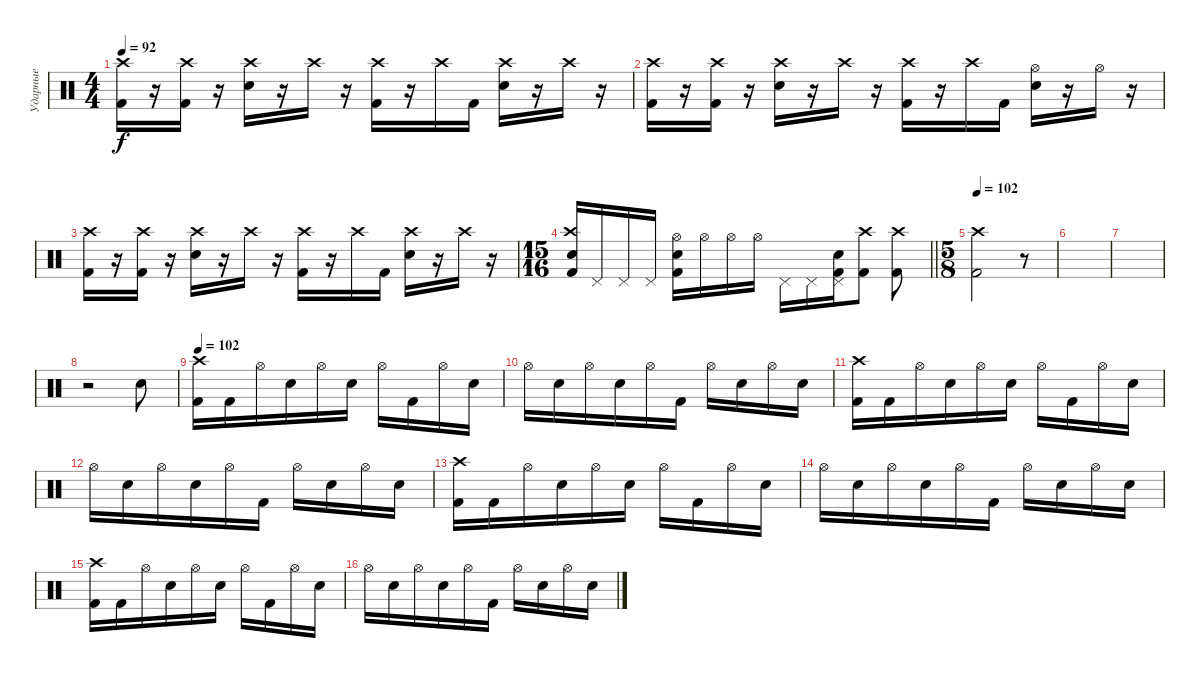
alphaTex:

\track ("Ударные" "Ударные") {instrument percussion}
\staff {score}
\articulation defaults
\ts (4 4)
\tempo 92
\clef neutral
\ks c
("Kick (hit) 2" "Crash high (hit)").16{dy f} r.16 ("Kick (hit) 2" "Crash high (hit)").16 r.16 ("Crash high (hit)" "Electric Snare (hit)").16 r.16 "Crash high (hit)".16 r.16 ("Kick (hit) 2" "Crash high (hit)").16 r.16 "Crash high (hit)".16 "Kick (hit) 2".16 ("Crash high (hit)" "Electric Snare (hit)").16 r.16 "Crash high (hit)".16 r.16 |
("Kick (hit) 2" "Crash high (hit)").16 r.16 ("Kick (hit) 2" "Crash high (hit)").16 r.16 ("Crash high (hit)" "Electric Snare (hit)").16 r.16 "Crash high (hit)".16 r.16 ("Kick (hit) 2" "Crash high (hit)").16 r.16 "Crash high (hit)".16 "Kick (hit) 2".16 ("Hi-Hat (open)" "Electric Snare (hit)").16 r.16 "Hi-Hat (open)".16 r.16 |
("Kick (hit) 2" "Crash high (hit)").16 r.16 ("Kick (hit) 2" "Crash high (hit)").16 r.16 ("Crash high (hit)" "Electric Snare (hit)").16 r.16 "Crash high (hit)".16 r.16 ("Kick (hit) 2" "Crash high (hit)").16 r.16 "Crash high (hit)".16 "Kick (hit) 2".16 ("Crash high (hit)" "Electric Snare (hit)").16 r.16 "Crash high (hit)".16 r.16 |
\ts (15 16)
\barLineRight lightlight
("Crash high (hit)" "Kick (hit) 2" "Electric Snare (hit)").16 "Pedal Hi-Hat (hit)".16 "Pedal Hi-Hat (hit)".16 "Pedal Hi-Hat (hit)".16 ("Hi-Hat (open)" "Kick (hit) 2" "Electric Snare (hit)").16 "Hi-Hat (open)".16 "Hi-Hat (open)".16 "Hi-Hat (open)".16 "Pedal Hi-Hat (hit)".16 "Pedal Hi-Hat (hit)".16 ("Pedal Hi-Hat (hit)" "Kick (hit) 2" "Electric Snare (hit)").16 ("Crash high (hit)" "Kick (hit) 2").8 ("Crash high (hit)" "Kick (hit) 2").8 |
\ts (5 8)
\section ("" "")
\tempo 102
("Kick (hit) 2" "Crash high (hit)").2 r.8 |
|
|
r.2 "Electric Snare (hit)".8 |
\tempo 102
("Kick (hit) 2" "Crash high (hit)").16 "Kick (hit) 2".16 "Hi-Hat (open)".16 "Electric Snare (hit)".16 "Hi-Hat (open)".16 "Electric Snare (hit)".16 "Hi-Hat (open)".16 "Kick (hit) 2".16 "Hi-Hat (open)".16 "Electric Snare (hit)".16 |
"Hi-Hat (open)".16 "Electric Snare (hit)".16 "Hi-Hat (open)".16 "Electric Snare (hit)".16 "Hi-Hat (open)".16 "Kick (hit) 2".16 "Hi-Hat (open)".16 "Electric Snare (hit)".16 "Hi-Hat (open)".16 "Electric Snare (hit)".16 |
("Kick (hit) 2" "Crash high (hit)").16 "Kick (hit) 2".16 "Hi-Hat (open)".16 "Electric Snare (hit)".16 "Hi-Hat (open)".16 "Electric Snare (hit)".16 "Hi-Hat (open)".16 "Kick (hit) 2".16 "Hi-Hat (open)".16 "Electric Snare (hit)".16 |
"Hi-Hat (open)".16 "Electric Snare (hit)".16 "Hi-Hat (open)".16 "Electric Snare (hit)".16 "Hi-Hat (open)".16 "Kick (hit) 2".16 "Hi-Hat (open)".16 "Electric Snare (hit)".16 "Hi-Hat (open)".16 "Electric Snare (hit)".16 |
("Kick (hit) 2" "Crash high (hit)").16 "Kick (hit) 2".16 "Hi-Hat (open)".16 "Electric Snare (hit)".16 "Hi-Hat (open)".16 "Electric Snare (hit)".16 "Hi-Hat (open)".16 "Kick (hit) 2".16 "Hi-Hat (open)".16 "Electric Snare (hit)".16 |
"Hi-Hat (open)".16 "Electric Snare (hit)".16 "Hi-Hat (open)".16 "Electric Snare (hit)".16 "Hi-Hat (open)".16 "Kick (hit) 2".16 "Hi-Hat (open)".16 "Electric Snare (hit)".16 "Hi-Hat (open)".16 "Electric Snare (hit)".16 |
("Kick (hit) 2" "Crash high (hit)").16 "Kick (hit) 2".16 "Hi-Hat (open)".16 "Electric Snare (hit)".16 "Hi-Hat (open)".16 "Electric Snare (hit)".16 "Hi-Hat (open)".16 "Kick (hit) 2".16 "Hi-Hat (open)".16 "Electric Snare (hit)".16 |
"Hi-Hat (open)".16 "Electric Snare (hit)".16 "Hi-Hat (open)".16 "Electric Snare (hit)".16 "Hi-Hat (open)".16 "Kick (hit) 2".16 "Hi-Hat (open)".16 "Electric Snare (hit)".16 "Hi-Hat (open)".16 "Electric Snare (hit)".16
